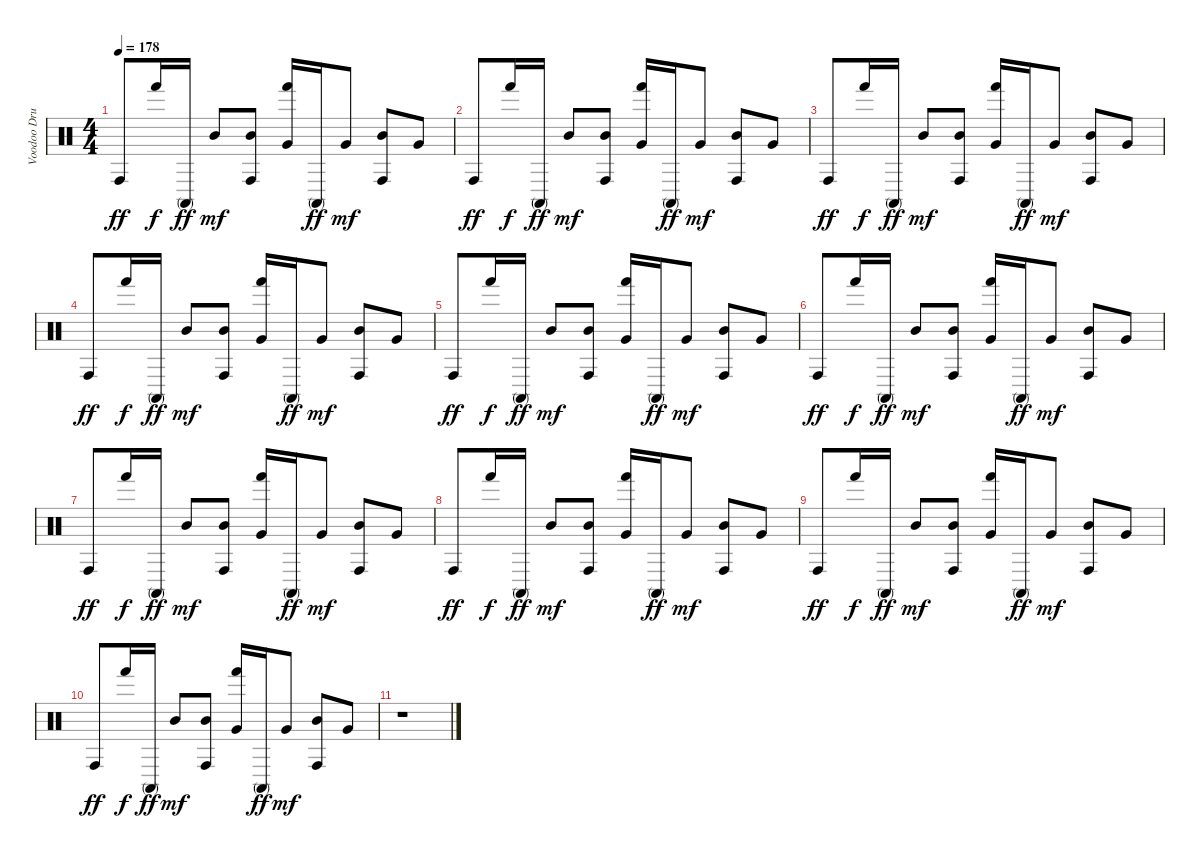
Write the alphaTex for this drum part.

\track ("Voodoo Drums" "Voodoo Dru") {instrument percussion}
\staff {score}
\articulation defaults
\ts (4 4)
\tempo 178
\clef neutral
\ks c "Conga high (hit)".8{dy ff} "Hand (hit)".16{dy f} "Conga high (mute)".16{dy ff} "Mid Tom (hit)".8{dy mf}
("Conga high (hit)" "Mid Tom (hit)").8 ("Hand (hit)" "Very Low Tom (hit)").16 "Conga high (mute)".16{dy ff} "Very Low Tom (hit)".8{dy mf} ("Conga high (hit)" "Mid Tom (hit)").8 "Very Low Tom (hit)".8 |
"Conga high (hit)".8{dy ff} "Hand (hit)".16{dy f} "Conga high (mute)".16{dy ff} "Mid Tom (hit)".8{dy mf} ("Conga high (hit)" "Mid Tom (hit)").8 ("Hand (hit)" "Very Low Tom (hit)").16 "Conga high (mute)".16{dy ff} "Very Low Tom (hit)".8{dy mf} ("Conga high (hit)" "Mid Tom (hit)").8 "Very Low Tom (hit)".8 |
"Conga high (hit)".8{dy ff} "Hand (hit)".16{dy f} "Conga high (mute)".16{dy ff} "Mid Tom (hit)".8{dy mf} ("Conga high (hit)" "Mid Tom (hit)").8 ("Hand (hit)" "Very Low Tom (hit)").16 "Conga high (mute)".16{dy ff} "Very Low Tom (hit)".8{dy mf} ("Conga high (hit)" "Mid Tom (hit)").8 "Very Low Tom (hit)".8 |
"Conga high (hit)".8{dy ff} "Hand (hit)".16{dy f} "Conga high (mute)".16{dy ff} "Mid Tom (hit)".8{dy mf} ("Conga high (hit)" "Mid Tom (hit)").8 ("Hand (hit)" "Very Low Tom (hit)").16 "Conga high (mute)".16{dy ff} "Very Low Tom (hit)".8{dy mf} ("Conga high (hit)" "Mid Tom (hit)").8 "Very Low Tom (hit)".8 |
"Conga high (hit)".8{dy ff} "Hand (hit)".16{dy f} "Conga high (mute)".16{dy ff} "Mid Tom (hit)".8{dy mf} ("Conga high (hit)" "Mid Tom (hit)").8 ("Hand (hit)" "Very Low Tom (hit)").16 "Conga high (mute)".16{dy ff} "Very Low Tom (hit)".8{dy mf} ("Conga high (hit)" "Mid Tom (hit)").8 "Very Low Tom (hit)".8 |
"Conga high (hit)".8{dy ff} "Hand (hit)".16{dy f} "Conga high (mute)".16{dy ff} "Mid Tom (hit)".8{dy mf} ("Conga high (hit)" "Mid Tom (hit)").8 ("Hand (hit)" "Very Low Tom (hit)").16 "Conga high (mute)".16{dy ff} "Very Low Tom (hit)".8{dy mf} ("Conga high (hit)" "Mid Tom (hit)").8 "Very Low Tom (hit)".8 |
"Conga high (hit)".8{dy ff} "Hand (hit)".16{dy f} "Conga high (mute)".16{dy ff} "Mid Tom (hit)".8{dy mf} ("Conga high (hit)" "Mid Tom (hit)").8 ("Hand (hit)" "Very Low Tom (hit)").16 "Conga high (mute)".16{dy ff} "Very Low Tom (hit)".8{dy mf} ("Conga high (hit)" "Mid Tom (hit)").8 "Very Low Tom (hit)".8 |
"Conga high (hit)".8{dy ff} "Hand (hit)".16{dy f} "Conga high (mute)".16{dy ff} "Mid Tom (hit)".8{dy mf} ("Conga high (hit)" "Mid Tom (hit)").8 ("Hand (hit)" "Very Low Tom (hit)").16 "Conga high (mute)".16{dy ff} "Very Low Tom (hit)".8{dy mf} ("Conga high (hit)" "Mid Tom (hit)").8 "Very Low Tom (hit)".8 |
"Conga high (hit)".8{dy ff} "Hand (hit)".16{dy f} "Conga high (mute)".16{dy ff} "Mid Tom (hit)".8{dy mf} ("Conga high (hit)" "Mid Tom (hit)").8 ("Hand (hit)" "Very Low Tom (hit)").16 "Conga high (mute)".16{dy ff} "Very Low Tom (hit)".8{dy mf} ("Conga high (hit)" "Mid Tom (hit)").8 "Very Low Tom (hit)".8 |
"Conga high (hit)".8{dy ff} "Hand (hit)".16{dy f} "Conga high (mute)".16{dy ff} "Mid Tom (hit)".8{dy mf} ("Conga high (hit)" "Mid Tom (hit)").8 ("Hand (hit)" "Very Low Tom (hit)").16 "Conga high (mute)".16{dy ff} "Very Low Tom (hit)".8{dy mf} ("Conga high (hit)" "Mid Tom (hit)").8 "Very Low Tom (hit)".8 |
r.1
